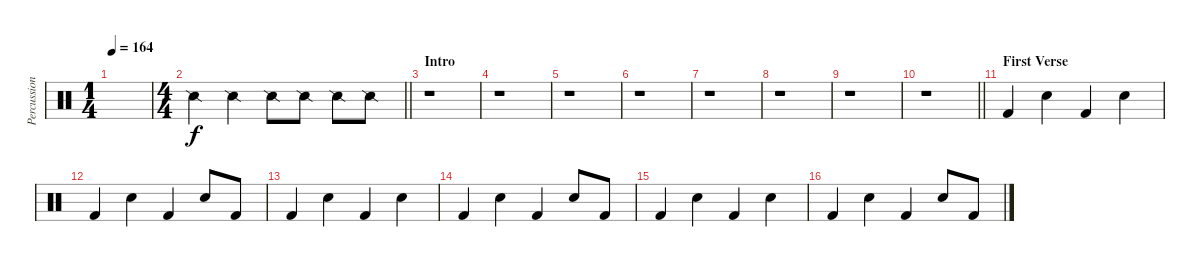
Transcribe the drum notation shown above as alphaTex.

\track ("Percussions" "Percussion") {instrument percussion}
\staff {score}
\articulation defaults
\ts (1 4)
\tempo 164
\clef neutral
\ks c
|
\ts (4 4)
\barLineRight lightlight "Snare (side stick) 2".4 "Snare (side stick) 2".4 "Snare (side stick) 2".8 "Snare (side stick) 2".8 "Snare (side stick) 2".8 "Snare (side stick) 2".8
|
\section ("" "Intro")
r.1 |
r.1 |
r.1 |
r.1 |
r.1 |
r.1 |
r.1 |
\barLineRight lightlight
r.1 |
\section ("" "First Verse")
"Kick (hit) 2".4 "Electric Snare (hit)".4 "Kick (hit) 2".4 "Electric Snare (hit)".4 |
"Kick (hit) 2".4 "Electric Snare (hit)".4 "Kick (hit) 2".4 "Electric Snare (hit)".8 "Kick (hit) 2".8 |
"Kick (hit) 2".4 "Electric Snare (hit)".4 "Kick (hit) 2".4 "Electric Snare (hit)".4 |
"Kick (hit) 2".4 "Electric Snare (hit)".4 "Kick (hit) 2".4 "Electric Snare (hit)".8 "Kick (hit) 2".8 |
"Kick (hit) 2".4 "Electric Snare (hit)".4 "Kick (hit) 2".4 "Electric Snare (hit)".4 |
"Kick (hit) 2".4 "Electric Snare (hit)".4 "Kick (hit) 2".4 "Electric Snare (hit)".8 "Kick (hit) 2".8
